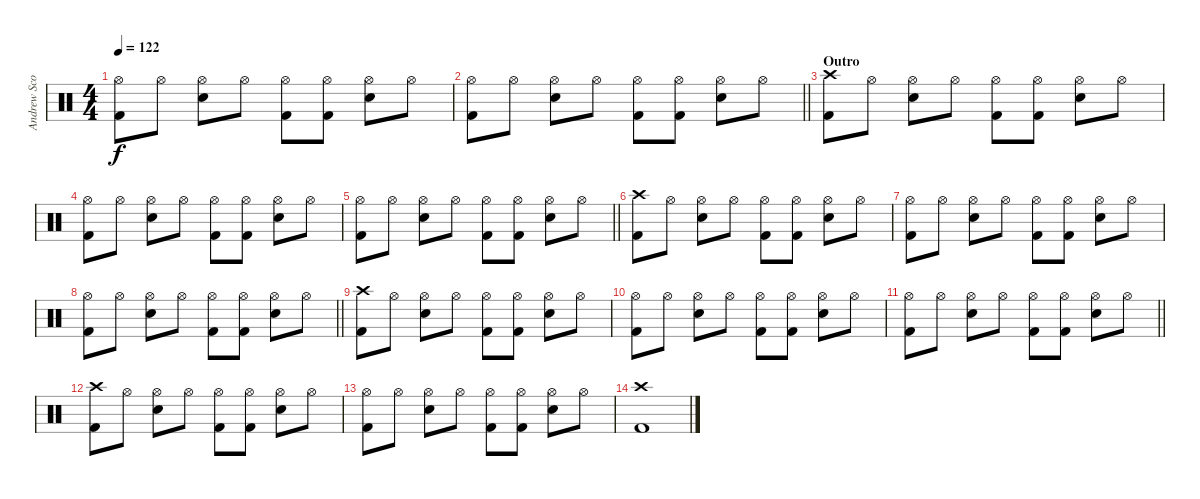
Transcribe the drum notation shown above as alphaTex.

\track ("Andrew Scott" "Andrew Sco") {instrument percussion}
\staff {score}
\articulation defaults
\ts (4 4)
\tempo 122
\clef neutral
\ks c
("Hi-Hat (open)" "Kick (hit) 2").8{dy f} "Hi-Hat (open)".8 ("Hi-Hat (open)" "Snare (hit) 2").8 "Hi-Hat (open)".8 ("Hi-Hat (open)" "Kick (hit) 2").8 ("Hi-Hat (open)" "Kick (hit) 2").8 ("Hi-Hat (open)" "Snare (hit) 2").8 "Hi-Hat (open)".8 |
\barLineRight lightlight
("Hi-Hat (open)" "Kick (hit) 2").8 "Hi-Hat (open)".8 ("Hi-Hat (open)" "Snare (hit) 2").8 "Hi-Hat (open)".8 ("Hi-Hat (open)" "Kick (hit) 2").8 ("Hi-Hat (open)" "Kick (hit) 2").8 ("Hi-Hat (open)" "Snare (hit) 2").8 "Hi-Hat (open)".8 |
\section ("" "Outro")
("Crash high (hit)" "Kick (hit) 2").8 "Hi-Hat (open)".8 ("Hi-Hat (open)" "Snare (hit) 2").8 "Hi-Hat (open)".8 ("Hi-Hat (open)" "Kick (hit) 2").8 ("Hi-Hat (open)" "Kick (hit) 2").8 ("Hi-Hat (open)" "Snare (hit) 2").8 "Hi-Hat (open)".8 |
("Hi-Hat (open)" "Kick (hit) 2").8 "Hi-Hat (open)".8 ("Hi-Hat (open)" "Snare (hit) 2").8 "Hi-Hat (open)".8 ("Hi-Hat (open)" "Kick (hit) 2").8 ("Hi-Hat (open)" "Kick (hit) 2").8 ("Hi-Hat (open)" "Snare (hit) 2").8 "Hi-Hat (open)".8 |
\barLineRight lightlight
("Hi-Hat (open)" "Kick (hit) 2").8 "Hi-Hat (open)".8 ("Hi-Hat (open)" "Snare (hit) 2").8 "Hi-Hat (open)".8 ("Hi-Hat (open)" "Kick (hit) 2").8 ("Hi-Hat (open)" "Kick (hit) 2").8 ("Hi-Hat (open)" "Snare (hit) 2").8 "Hi-Hat (open)".8 |
\section ("" "")
("Crash high (hit)" "Kick (hit) 2").8 "Hi-Hat (open)".8 ("Hi-Hat (open)" "Snare (hit) 2").8 "Hi-Hat (open)".8 ("Hi-Hat (open)" "Kick (hit) 2").8 ("Hi-Hat (open)" "Kick (hit) 2").8 ("Hi-Hat (open)" "Snare (hit) 2").8 "Hi-Hat (open)".8 |
("Hi-Hat (open)" "Kick (hit) 2").8 "Hi-Hat (open)".8 ("Hi-Hat (open)" "Snare (hit) 2").8 "Hi-Hat (open)".8 ("Hi-Hat (open)" "Kick (hit) 2").8 ("Hi-Hat (open)" "Kick (hit) 2").8 ("Hi-Hat (open)" "Snare (hit) 2").8 "Hi-Hat (open)".8 |
\barLineRight lightlight
("Hi-Hat (open)" "Kick (hit) 2").8 "Hi-Hat (open)".8 ("Hi-Hat (open)" "Snare (hit) 2").8 "Hi-Hat (open)".8 ("Hi-Hat (open)" "Kick (hit) 2").8 ("Hi-Hat (open)" "Kick (hit) 2").8 ("Hi-Hat (open)" "Snare (hit) 2").8 "Hi-Hat (open)".8 |
\section ("" "")
("Crash high (hit)" "Kick (hit) 2").8 "Hi-Hat (open)".8 ("Hi-Hat (open)" "Snare (hit) 2").8 "Hi-Hat (open)".8 ("Hi-Hat (open)" "Kick (hit) 2").8 ("Hi-Hat (open)" "Kick (hit) 2").8 ("Hi-Hat (open)" "Snare (hit) 2").8 "Hi-Hat (open)".8 |
("Hi-Hat (open)" "Kick (hit) 2").8 "Hi-Hat (open)".8 ("Hi-Hat (open)" "Snare (hit) 2").8 "Hi-Hat (open)".8 ("Hi-Hat (open)" "Kick (hit) 2").8 ("Hi-Hat (open)" "Kick (hit) 2").8 ("Hi-Hat (open)" "Snare (hit) 2").8 "Hi-Hat (open)".8 |
\barLineRight lightlight
("Hi-Hat (open)" "Kick (hit) 2").8 "Hi-Hat (open)".8 ("Hi-Hat (open)" "Snare (hit) 2").8 "Hi-Hat (open)".8 ("Hi-Hat (open)" "Kick (hit) 2").8 ("Hi-Hat (open)" "Kick (hit) 2").8 ("Hi-Hat (open)" "Snare (hit) 2").8 "Hi-Hat (open)".8 |
\section ("" "")
("Crash high (hit)" "Kick (hit) 2").8 "Hi-Hat (open)".8 ("Hi-Hat (open)" "Snare (hit) 2").8 "Hi-Hat (open)".8 ("Hi-Hat (open)" "Kick (hit) 2").8 ("Hi-Hat (open)" "Kick (hit) 2").8 ("Hi-Hat (open)" "Snare (hit) 2").8 "Hi-Hat (open)".8 |
("Hi-Hat (open)" "Kick (hit) 2").8 "Hi-Hat (open)".8 ("Hi-Hat (open)" "Snare (hit) 2").8 "Hi-Hat (open)".8 ("Hi-Hat (open)" "Kick (hit) 2").8 ("Hi-Hat (open)" "Kick (hit) 2").8 ("Hi-Hat (open)" "Snare (hit) 2").8 "Hi-Hat (open)".8 |
("Crash high (hit)" "Kick (hit) 2").1
